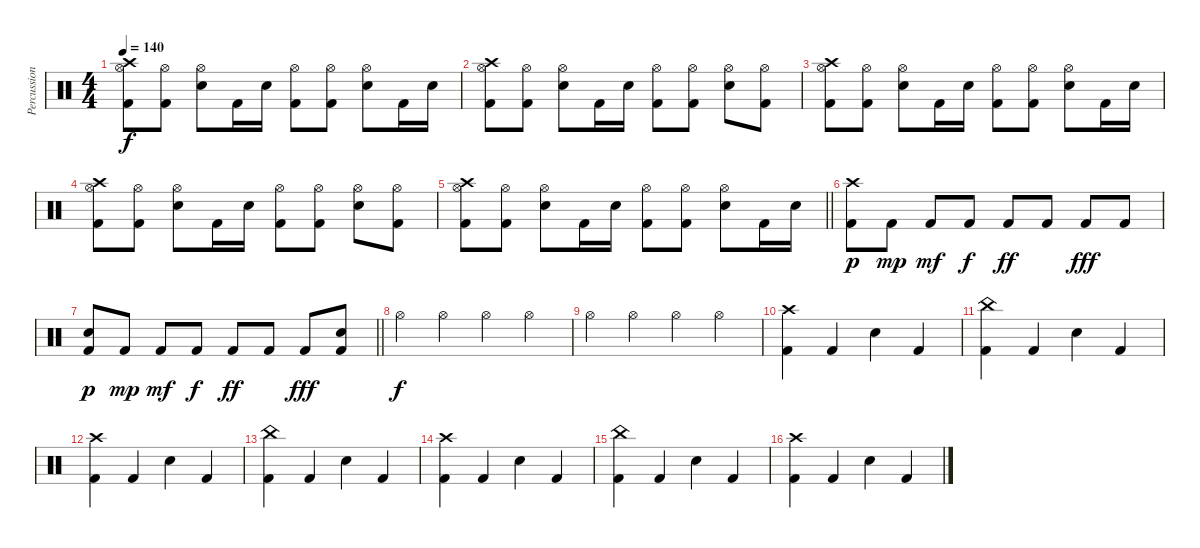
\track ("Percussion" "Percussion") {instrument percussion}
\staff {score}
\articulation defaults
\ts (4 4)
\tempo 140
\clef neutral
\ks c
("Hi-Hat (open)" "Crash high (hit)" "Kick (hit) 2").8{dy f} ("Hi-Hat (open)" "Kick (hit) 2").8 ("Hi-Hat (open)" "Snare (hit) 2").8 "Kick (hit) 2".16 "Snare (hit) 2".16 ("Hi-Hat (open)" "Kick (hit) 2").8 ("Hi-Hat (open)" "Kick (hit) 2").8 ("Hi-Hat (open)" "Snare (hit) 2").8 "Kick (hit) 2".16 "Snare (hit) 2".16 |
("Hi-Hat (open)" "Crash high (hit)" "Kick (hit) 2").8 ("Hi-Hat (open)" "Kick (hit) 2").8 ("Hi-Hat (open)" "Snare (hit) 2").8 "Kick (hit) 2".16 "Snare (hit) 2".16 ("Hi-Hat (open)" "Kick (hit) 2").8 ("Hi-Hat (open)" "Kick (hit) 2").8 ("Hi-Hat (open)" "Snare (hit) 2").8 ("Hi-Hat (open)" "Kick (hit) 2").8 |
("Hi-Hat (open)" "Crash high (hit)" "Kick (hit) 2").8 ("Hi-Hat (open)" "Kick (hit) 2").8 ("Hi-Hat (open)" "Snare (hit) 2").8 "Kick (hit) 2".16 "Snare (hit) 2".16 ("Hi-Hat (open)" "Kick (hit) 2").8 ("Hi-Hat (open)" "Kick (hit) 2").8 ("Hi-Hat (open)" "Snare (hit) 2").8 "Kick (hit) 2".16 "Snare (hit) 2".16 |
("Hi-Hat (open)" "Crash high (hit)" "Kick (hit) 2").8 ("Hi-Hat (open)" "Kick (hit) 2").8 ("Hi-Hat (open)" "Snare (hit) 2").8 "Kick (hit) 2".16 "Snare (hit) 2".16 ("Hi-Hat (open)" "Kick (hit) 2").8 ("Hi-Hat (open)" "Kick (hit) 2").8 ("Hi-Hat (open)" "Snare (hit) 2").8 ("Hi-Hat (open)" "Kick (hit) 2").8 |
\barLineRight lightlight
("Hi-Hat (open)" "Crash high (hit)" "Kick (hit) 2").8 ("Hi-Hat (open)" "Kick (hit) 2").8 ("Hi-Hat (open)" "Snare (hit) 2").8 "Kick (hit) 2".16 "Snare (hit) 2".16 ("Hi-Hat (open)" "Kick (hit) 2").8 ("Hi-Hat (open)" "Kick (hit) 2").8 ("Hi-Hat (open)" "Snare (hit) 2").8 "Kick (hit) 2".16 "Snare (hit) 2".16 |
\section ("" "")
("Crash high (hit)" "Kick (hit) 2").8{dy p} "Kick (hit) 2".8{dy mp} "Kick (hit) 2".8{dy mf} "Kick (hit) 2".8{dy f} "Kick (hit) 2".8{dy ff} "Kick (hit) 2".8 "Kick (hit) 2".8{dy fff} "Kick (hit) 2".8 |
\barLineRight lightlight
("Snare (hit) 2" "Kick (hit) 2").8{dy p} "Kick (hit) 2".8{dy mp} "Kick (hit) 2".8{dy mf} "Kick (hit) 2".8{dy f} "Kick (hit) 2".8{dy ff} "Kick (hit) 2".8 "Kick (hit) 2".8{dy fff} ("Snare (hit) 2" "Kick (hit) 2").8 |
"Hi-Hat (open)".4{dy f} "Hi-Hat (open)".4 "Hi-Hat (open)".4 "Hi-Hat (open)".4 |
"Hi-Hat (open)".4 "Hi-Hat (open)".4 "Hi-Hat (open)".4 "Hi-Hat (open)".4 |
("Kick (hit) 2" "Crash high (hit)").4 "Kick (hit) 2".4 "Snare (hit) 2".4 "Kick (hit) 2".4 |
("Kick (hit) 2" "China (hit)").4 "Kick (hit) 2".4 "Snare (hit) 2".4 "Kick (hit) 2".4 |
("Kick (hit) 2" "Crash high (hit)").4 "Kick (hit) 2".4 "Snare (hit) 2".4 "Kick (hit) 2".4 |
("Kick (hit) 2" "China (hit)").4 "Kick (hit) 2".4 "Snare (hit) 2".4 "Kick (hit) 2".4 |
("Kick (hit) 2" "Crash high (hit)").4 "Kick (hit) 2".4 "Snare (hit) 2".4 "Kick (hit) 2".4 |
("Kick (hit) 2" "China (hit)").4 "Kick (hit) 2".4 "Snare (hit) 2".4 "Kick (hit) 2".4 |
("Kick (hit) 2" "Crash high (hit)").4 "Kick (hit) 2".4 "Snare (hit) 2".4 "Kick (hit) 2".4
